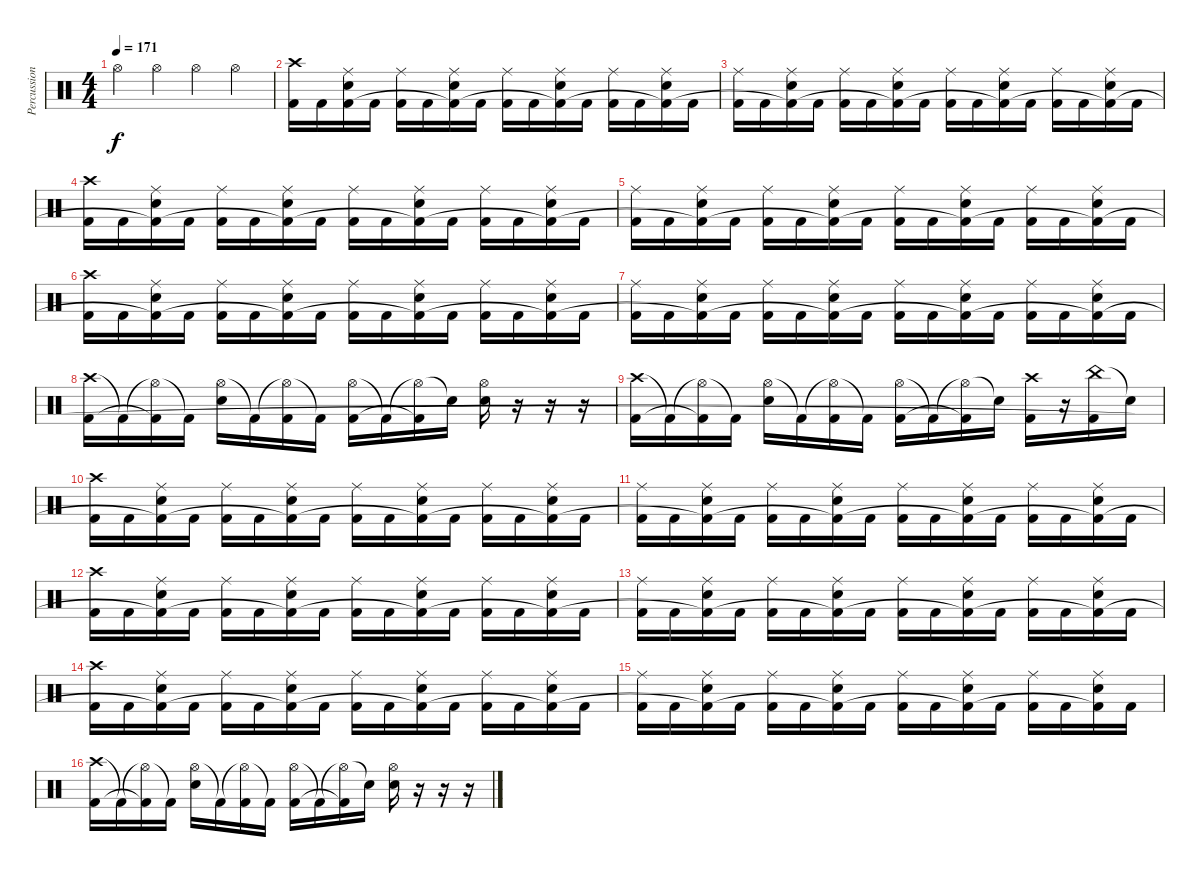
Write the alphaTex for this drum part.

\track ("Percussions" "Percussion") {instrument percussion}
\staff {score}
\articulation defaults
\ts (4 4)
\tempo 171
\clef neutral
\ks c "Hi-Hat (open)".4{dy f} "Hi-Hat (open)".4 "Hi-Hat (open)".4 "Hi-Hat (open)".4
|
("Crash high (hit)" "Kick (hit) 2").16 "Kick (hit) 2".16 ("Ride (middle)" "Electric Snare (hit)" "Kick (hit) 2").16 "Kick (hit) 2".16 ("Ride (middle)" "Kick (hit) 2").16 "Kick (hit) 2".16 ("Ride (middle)" "Electric Snare (hit)" "Kick (hit) 2"{t}).16 "Kick (hit) 2".16 ("Ride (middle)" "Kick (hit) 2").16 "Kick (hit) 2".16 ("Ride (middle)" "Electric Snare (hit)" "Kick (hit) 2"{t}).16 "Kick (hit) 2".16 ("Ride (middle)" "Kick (hit) 2").16 "Kick (hit) 2".16 ("Ride (middle)" "Electric Snare (hit)" "Kick (hit) 2"{t}).16 "Kick (hit) 2".16 |
("Ride (middle)" "Kick (hit) 2").16 "Kick (hit) 2".16 ("Ride (middle)" "Electric Snare (hit)" "Kick (hit) 2"{t}).16 "Kick (hit) 2".16 ("Ride (middle)" "Kick (hit) 2").16 "Kick (hit) 2".16 ("Ride (middle)" "Electric Snare (hit)" "Kick (hit) 2"{t}).16 "Kick (hit) 2".16 ("Ride (middle)" "Kick (hit) 2").16 "Kick (hit) 2".16 ("Ride (middle)" "Electric Snare (hit)" "Kick (hit) 2"{t}).16 "Kick (hit) 2".16 ("Ride (middle)" "Kick (hit) 2").16 "Kick (hit) 2".16 ("Ride (middle)" "Electric Snare (hit)" "Kick (hit) 2"{t}).16 "Kick (hit) 2".16 |
("Crash high (hit)" "Kick (hit) 2").16 "Kick (hit) 2".16 ("Ride (middle)" "Electric Snare (hit)" "Kick (hit) 2"{t}).16 "Kick (hit) 2".16 ("Ride (middle)" "Kick (hit) 2").16 "Kick (hit) 2".16 ("Ride (middle)" "Electric Snare (hit)" "Kick (hit) 2"{t}).16 "Kick (hit) 2".16 ("Ride (middle)" "Kick (hit) 2").16 "Kick (hit) 2".16 ("Ride (middle)" "Electric Snare (hit)" "Kick (hit) 2"{t}).16 "Kick (hit) 2".16 ("Ride (middle)" "Kick (hit) 2").16 "Kick (hit) 2".16 ("Ride (middle)" "Electric Snare (hit)" "Kick (hit) 2"{t}).16 "Kick (hit) 2".16 |
("Ride (middle)" "Kick (hit) 2").16 "Kick (hit) 2".16 ("Ride (middle)" "Electric Snare (hit)" "Kick (hit) 2"{t}).16 "Kick (hit) 2".16 ("Ride (middle)" "Kick (hit) 2").16 "Kick (hit) 2".16 ("Ride (middle)" "Electric Snare (hit)" "Kick (hit) 2"{t}).16 "Kick (hit) 2".16 ("Ride (middle)" "Kick (hit) 2").16 "Kick (hit) 2".16 ("Ride (middle)" "Electric Snare (hit)" "Kick (hit) 2"{t}).16 "Kick (hit) 2".16 ("Ride (middle)" "Kick (hit) 2").16 "Kick (hit) 2".16 ("Ride (middle)" "Electric Snare (hit)" "Kick (hit) 2"{t}).16 "Kick (hit) 2".16 |
("Crash high (hit)" "Kick (hit) 2").16 "Kick (hit) 2".16 ("Ride (middle)" "Electric Snare (hit)" "Kick (hit) 2"{t}).16 "Kick (hit) 2".16 ("Ride (middle)" "Kick (hit) 2").16 "Kick (hit) 2".16 ("Ride (middle)" "Electric Snare (hit)" "Kick (hit) 2"{t}).16 "Kick (hit) 2".16 ("Ride (middle)" "Kick (hit) 2").16 "Kick (hit) 2".16 ("Ride (middle)" "Electric Snare (hit)" "Kick (hit) 2"{t}).16 "Kick (hit) 2".16 ("Ride (middle)" "Kick (hit) 2").16 "Kick (hit) 2".16 ("Ride (middle)" "Electric Snare (hit)" "Kick (hit) 2"{t}).16 "Kick (hit) 2".16 |
("Ride (middle)" "Kick (hit) 2").16 "Kick (hit) 2".16 ("Ride (middle)" "Electric Snare (hit)" "Kick (hit) 2"{t}).16 "Kick (hit) 2".16 ("Ride (middle)" "Kick (hit) 2").16 "Kick (hit) 2".16 ("Ride (middle)" "Electric Snare (hit)" "Kick (hit) 2"{t}).16 "Kick (hit) 2".16 ("Ride (middle)" "Kick (hit) 2").16 "Kick (hit) 2".16 ("Ride (middle)" "Electric Snare (hit)" "Kick (hit) 2"{t}).16 "Kick (hit) 2".16 ("Ride (middle)" "Kick (hit) 2").16 "Kick (hit) 2".16 ("Ride (middle)" "Electric Snare (hit)" "Kick (hit) 2"{t}).16 "Kick (hit) 2".16 |
("Crash high (hit)" "Kick (hit) 2").16 "Kick (hit) 2"{t}.16 ("Hi-Hat (open)"{t} "Kick (hit) 2"{t}).16 "Kick (hit) 2"{t}.16 ("Hi-Hat (open)" "Electric Snare (hit)").16 "Kick (hit) 2"{t}.16 ("Hi-Hat (open)"{t} "Kick (hit) 2").16 "Kick (hit) 2"{t}.16 ("Hi-Hat (open)" "Kick (hit) 2").16 "Kick (hit) 2"{t}.16 ("Hi-Hat (open)"{t} "Kick (hit) 2"{t}).16 "Snare (hit)"{t}.16 ("Hi-Hat (open)" "Electric Snare (hit)").16 r.16 r.16 r.16 |
("Crash high (hit)" "Kick (hit) 2").16 "Kick (hit) 2"{t}.16 ("Hi-Hat (open)"{t} "Kick (hit) 2"{t}).16 "Kick (hit) 2"{t}.16 ("Hi-Hat (open)" "Electric Snare (hit)").16 "Kick (hit) 2"{t}.16 ("Hi-Hat (open)"{t} "Kick (hit) 2").16 "Kick (hit) 2"{t}.16 ("Hi-Hat (open)" "Kick (hit) 2").16 "Kick (hit) 2"{t}.16 ("Hi-Hat (open)"{t} "Kick (hit) 2"{t}).16 "Snare (hit)"{t}.16 ("Crash high (hit)" "Kick (hit) 2").16 r.16 ("China (hit)" "Kick (hit) 2").16 "Snare (hit)"{t}.16 |
("Crash high (hit)" "Kick (hit) 2").16 "Kick (hit) 2".16 ("Ride (middle)" "Electric Snare (hit)" "Kick (hit) 2"{t}).16 "Kick (hit) 2".16 ("Ride (middle)" "Kick (hit) 2").16 "Kick (hit) 2".16 ("Ride (middle)" "Electric Snare (hit)" "Kick (hit) 2"{t}).16 "Kick (hit) 2".16 ("Ride (middle)" "Kick (hit) 2").16 "Kick (hit) 2".16 ("Ride (middle)" "Electric Snare (hit)" "Kick (hit) 2"{t}).16 "Kick (hit) 2".16 ("Ride (middle)" "Kick (hit) 2").16 "Kick (hit) 2".16 ("Ride (middle)" "Electric Snare (hit)" "Kick (hit) 2"{t}).16 "Kick (hit) 2".16 |
("Ride (middle)" "Kick (hit) 2").16 "Kick (hit) 2".16 ("Ride (middle)" "Electric Snare (hit)" "Kick (hit) 2"{t}).16 "Kick (hit) 2".16 ("Ride (middle)" "Kick (hit) 2").16 "Kick (hit) 2".16 ("Ride (middle)" "Electric Snare (hit)" "Kick (hit) 2"{t}).16 "Kick (hit) 2".16 ("Ride (middle)" "Kick (hit) 2").16 "Kick (hit) 2".16 ("Ride (middle)" "Electric Snare (hit)" "Kick (hit) 2"{t}).16 "Kick (hit) 2".16 ("Ride (middle)" "Kick (hit) 2").16 "Kick (hit) 2".16 ("Ride (middle)" "Electric Snare (hit)" "Kick (hit) 2"{t}).16 "Kick (hit) 2".16 |
("Crash high (hit)" "Kick (hit) 2").16 "Kick (hit) 2".16 ("Ride (middle)" "Electric Snare (hit)" "Kick (hit) 2"{t}).16 "Kick (hit) 2".16 ("Ride (middle)" "Kick (hit) 2").16 "Kick (hit) 2".16 ("Ride (middle)" "Electric Snare (hit)" "Kick (hit) 2"{t}).16 "Kick (hit) 2".16 ("Ride (middle)" "Kick (hit) 2").16 "Kick (hit) 2".16 ("Ride (middle)" "Electric Snare (hit)" "Kick (hit) 2"{t}).16 "Kick (hit) 2".16 ("Ride (middle)" "Kick (hit) 2").16 "Kick (hit) 2".16 ("Ride (middle)" "Electric Snare (hit)" "Kick (hit) 2"{t}).16 "Kick (hit) 2".16 |
("Ride (middle)" "Kick (hit) 2").16 "Kick (hit) 2".16 ("Ride (middle)" "Electric Snare (hit)" "Kick (hit) 2"{t}).16 "Kick (hit) 2".16 ("Ride (middle)" "Kick (hit) 2").16 "Kick (hit) 2".16 ("Ride (middle)" "Electric Snare (hit)" "Kick (hit) 2"{t}).16 "Kick (hit) 2".16 ("Ride (middle)" "Kick (hit) 2").16 "Kick (hit) 2".16 ("Ride (middle)" "Electric Snare (hit)" "Kick (hit) 2"{t}).16 "Kick (hit) 2".16 ("Ride (middle)" "Kick (hit) 2").16 "Kick (hit) 2".16 ("Ride (middle)" "Electric Snare (hit)" "Kick (hit) 2"{t}).16 "Kick (hit) 2".16 |
("Crash high (hit)" "Kick (hit) 2").16 "Kick (hit) 2".16 ("Ride (middle)" "Electric Snare (hit)" "Kick (hit) 2"{t}).16 "Kick (hit) 2".16 ("Ride (middle)" "Kick (hit) 2").16 "Kick (hit) 2".16 ("Ride (middle)" "Electric Snare (hit)" "Kick (hit) 2"{t}).16 "Kick (hit) 2".16 ("Ride (middle)" "Kick (hit) 2").16 "Kick (hit) 2".16 ("Ride (middle)" "Electric Snare (hit)" "Kick (hit) 2"{t}).16 "Kick (hit) 2".16 ("Ride (middle)" "Kick (hit) 2").16 "Kick (hit) 2".16 ("Ride (middle)" "Electric Snare (hit)" "Kick (hit) 2"{t}).16 "Kick (hit) 2".16 |
("Ride (middle)" "Kick (hit) 2").16 "Kick (hit) 2".16 ("Ride (middle)" "Electric Snare (hit)" "Kick (hit) 2"{t}).16 "Kick (hit) 2".16 ("Ride (middle)" "Kick (hit) 2").16 "Kick (hit) 2".16 ("Ride (middle)" "Electric Snare (hit)" "Kick (hit) 2"{t}).16 "Kick (hit) 2".16 ("Ride (middle)" "Kick (hit) 2").16 "Kick (hit) 2".16 ("Ride (middle)" "Electric Snare (hit)" "Kick (hit) 2"{t}).16 "Kick (hit) 2".16 ("Ride (middle)" "Kick (hit) 2").16 "Kick (hit) 2".16 ("Ride (middle)" "Electric Snare (hit)" "Kick (hit) 2"{t}).16 "Kick (hit) 2".16 |
("Crash high (hit)" "Kick (hit) 2").16 "Kick (hit) 2"{t}.16 ("Hi-Hat (open)"{t} "Kick (hit) 2"{t}).16 "Kick (hit) 2"{t}.16 ("Hi-Hat (open)" "Electric Snare (hit)").16 "Kick (hit) 2"{t}.16 ("Hi-Hat (open)"{t} "Kick (hit) 2").16 "Kick (hit) 2"{t}.16 ("Hi-Hat (open)" "Kick (hit) 2").16 "Kick (hit) 2"{t}.16 ("Hi-Hat (open)"{t} "Kick (hit) 2"{t}).16 "Snare (hit)"{t}.16 ("Hi-Hat (open)" "Electric Snare (hit)").16 r.16 r.16 r.16
